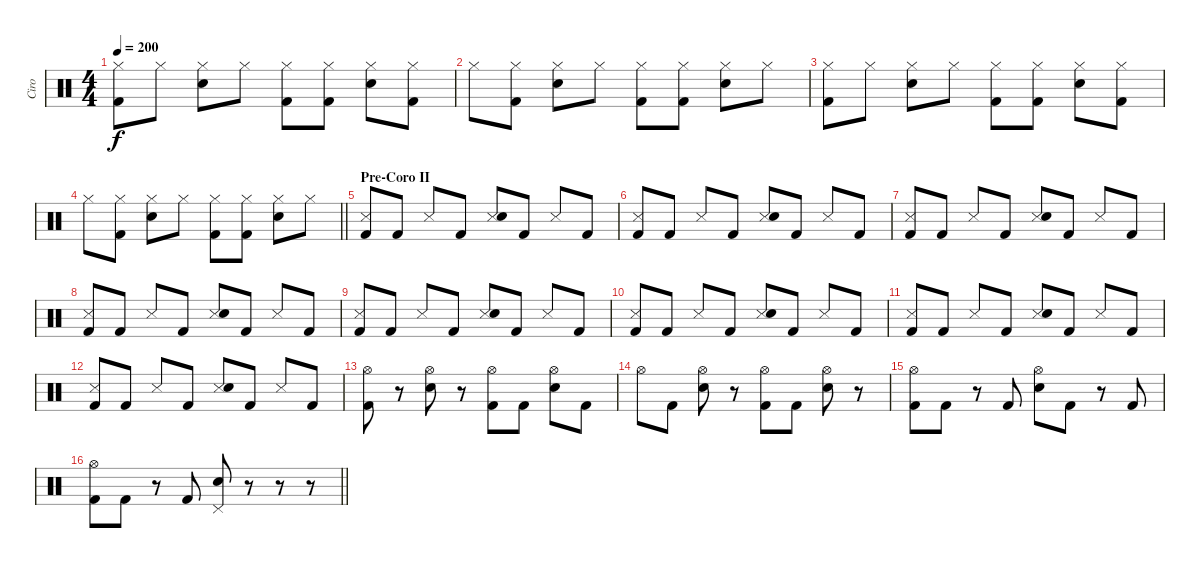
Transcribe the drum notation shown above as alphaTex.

\track ("Ciro" "Ciro") {instrument percussion}
\staff {score}
\articulation defaults
\ts (4 4)
\tempo 200
\clef neutral
\ks c
("Hi-Hat (closed)" "Kick (hit) 2").8{dy f} "Hi-Hat (closed)".8 ("Hi-Hat (closed)" "Snare (hit) 2").8 "Hi-Hat (closed)".8 ("Hi-Hat (closed)" "Kick (hit) 2").8 ("Hi-Hat (closed)" "Kick (hit) 2").8 ("Hi-Hat (closed)" "Snare (hit) 2").8 ("Hi-Hat (closed)" "Kick (hit) 2").8 |
"Hi-Hat (closed)".8 ("Hi-Hat (closed)" "Kick (hit) 2").8 ("Hi-Hat (closed)" "Snare (hit) 2").8 "Hi-Hat (closed)".8 ("Hi-Hat (closed)" "Kick (hit) 2").8 ("Hi-Hat (closed)" "Kick (hit) 2").8 ("Hi-Hat (closed)" "Snare (hit) 2").8 "Hi-Hat (closed)".8 |
("Hi-Hat (closed)" "Kick (hit) 2").8 "Hi-Hat (closed)".8 ("Hi-Hat (closed)" "Snare (hit) 2").8 "Hi-Hat (closed)".8 ("Hi-Hat (closed)" "Kick (hit) 2").8 ("Hi-Hat (closed)" "Kick (hit) 2").8 ("Hi-Hat (closed)" "Snare (hit) 2").8 ("Hi-Hat (closed)" "Kick (hit) 2").8 |
\barLineRight lightlight "Hi-Hat (closed)".8
("Hi-Hat (closed)" "Kick (hit) 2").8 ("Hi-Hat (closed)" "Snare (hit) 2").8 "Hi-Hat (closed)".8 ("Hi-Hat (closed)" "Kick (hit) 2").8 ("Hi-Hat (closed)" "Kick (hit) 2").8 ("Hi-Hat (closed)" "Snare (hit) 2").8 "Hi-Hat (closed)".8 |
\section ("" "Pre-Coro II")
("Metronome (hit)" "Kick (hit) 2").8 "Kick (hit) 2".8 "Metronome (hit)".8 "Kick (hit) 2".8 ("Metronome (hit)" "Snare (hit) 2").8 "Kick (hit) 2".8 "Metronome (hit)".8 "Kick (hit) 2".8 |
("Metronome (hit)" "Kick (hit) 2").8 "Kick (hit) 2".8 "Metronome (hit)".8 "Kick (hit) 2".8 ("Metronome (hit)" "Snare (hit) 2").8 "Kick (hit) 2".8 "Metronome (hit)".8 "Kick (hit) 2".8 |
("Metronome (hit)" "Kick (hit) 2").8 "Kick (hit) 2".8 "Metronome (hit)".8 "Kick (hit) 2".8 ("Metronome (hit)" "Snare (hit) 2").8 "Kick (hit) 2".8 "Metronome (hit)".8 "Kick (hit) 2".8 |
("Metronome (hit)" "Kick (hit) 2").8 "Kick (hit) 2".8 "Metronome (hit)".8 "Kick (hit) 2".8 ("Metronome (hit)" "Snare (hit) 2").8 "Kick (hit) 2".8 "Metronome (hit)".8 "Kick (hit) 2".8 |
("Metronome (hit)" "Kick (hit) 2").8 "Kick (hit) 2".8 "Metronome (hit)".8 "Kick (hit) 2".8 ("Metronome (hit)" "Snare (hit) 2").8 "Kick (hit) 2".8 "Metronome (hit)".8 "Kick (hit) 2".8 |
("Metronome (hit)" "Kick (hit) 2").8 "Kick (hit) 2".8 "Metronome (hit)".8 "Kick (hit) 2".8 ("Metronome (hit)" "Snare (hit) 2").8 "Kick (hit) 2".8 "Metronome (hit)".8 "Kick (hit) 2".8 |
("Metronome (hit)" "Kick (hit) 2").8 "Kick (hit) 2".8 "Metronome (hit)".8 "Kick (hit) 2".8 ("Metronome (hit)" "Snare (hit) 2").8 "Kick (hit) 2".8 "Metronome (hit)".8 "Kick (hit) 2".8 |
("Metronome (hit)" "Kick (hit) 2").8 "Kick (hit) 2".8 "Metronome (hit)".8 "Kick (hit) 2".8 ("Metronome (hit)" "Snare (hit) 2").8 "Kick (hit) 2".8 "Metronome (hit)".8 "Kick (hit) 2".8 |
("Hi-Hat (open)" "Kick (hit) 2").8 r.8 ("Hi-Hat (open)" "Snare (hit) 2").8 r.8 ("Hi-Hat (open)" "Kick (hit) 2").8 "Kick (hit) 2".8 ("Hi-Hat (open)" "Snare (hit) 2").8 "Kick (hit) 2".8 |
"Hi-Hat (open)".8 "Kick (hit) 2".8 ("Hi-Hat (open)" "Snare (hit) 2").8 r.8 ("Hi-Hat (open)" "Kick (hit) 2").8 "Kick (hit) 2".8 ("Hi-Hat (open)" "Snare (hit) 2").8 r.8 |
("Hi-Hat (open)" "Kick (hit) 2").8 "Kick (hit) 2".8 r.8 "Kick (hit) 2".8 ("Hi-Hat (open)" "Snare (hit) 2").8 "Kick (hit) 2".8 r.8 "Kick (hit) 2".8 |
\barLineRight lightlight
("Hi-Hat (open)" "Kick (hit) 2").8 "Kick (hit) 2".8 r.8 "Kick (hit) 2".8 ("Pedal Hi-Hat (hit)" "Snare (hit) 2").8 r.8 r.8 r.8
